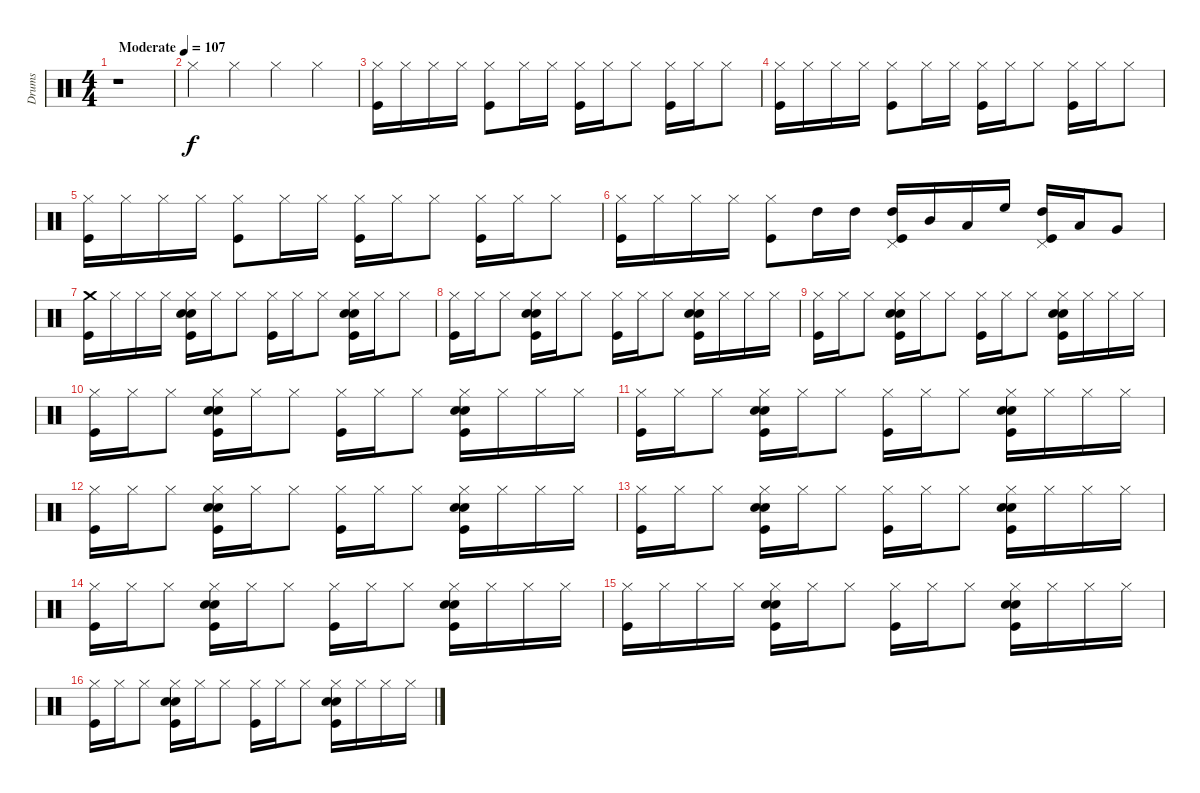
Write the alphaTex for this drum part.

\track ("Drums" "Drums") {instrument percussion}
\staff {score}
\articulation defaults
\ts (4 4)
\tempo (107 "Moderate")
\clef neutral
\ks c
r.1{dy f} |
"Hi-Hat (closed)".4 "Hi-Hat (closed)".4 "Hi-Hat (closed)".4 "Hi-Hat (closed)".4 |
("Kick (hit)" "Hi-Hat (closed)").16 "Hi-Hat (closed)".16 "Hi-Hat (closed)".16 "Hi-Hat (closed)".16 ("Kick (hit)" "Hi-Hat (closed)").8 "Hi-Hat (closed)".16 "Hi-Hat (closed)".16 ("Kick (hit)" "Hi-Hat (closed)").16 "Hi-Hat (closed)".16 "Hi-Hat (closed)".8 ("Kick (hit)" "Hi-Hat (closed)").16 "Hi-Hat (closed)".16 "Hi-Hat (closed)".8 |
("Kick (hit)" "Hi-Hat (closed)").16 "Hi-Hat (closed)".16 "Hi-Hat (closed)".16 "Hi-Hat (closed)".16 ("Kick (hit)" "Hi-Hat (closed)").8 "Hi-Hat (closed)".16 "Hi-Hat (closed)".16 ("Kick (hit)" "Hi-Hat (closed)").16 "Hi-Hat (closed)".16 "Hi-Hat (closed)".8 ("Kick (hit)" "Hi-Hat (closed)").16 "Hi-Hat (closed)".16 "Hi-Hat (closed)".8 |
("Kick (hit)" "Hi-Hat (closed)").16 "Hi-Hat (closed)".16 "Hi-Hat (closed)".16 "Hi-Hat (closed)".16 ("Kick (hit)" "Hi-Hat (closed)").8 "Hi-Hat (closed)".16 "Hi-Hat (closed)".16 ("Kick (hit)" "Hi-Hat (closed)").16 "Hi-Hat (closed)".16 "Hi-Hat (closed)".8 ("Kick (hit)" "Hi-Hat (closed)").16 "Hi-Hat (closed)".16 "Hi-Hat (closed)".8 |
("Kick (hit)" "Hi-Hat (closed)").16 "Hi-Hat (closed)".16 "Hi-Hat (closed)".16 "Hi-Hat (closed)".16 ("Kick (hit)" "Hi-Hat (closed)").8 "High Tom (hit)".16 "High Tom (hit)".16 ("Kick (hit)" "Pedal Hi-Hat (hit)" "High Tom (hit)").16 "Mid Tom (hit)".16 "Low Tom (hit)".16 "High Floor Tom (hit)".16 ("Kick (hit)" "Pedal Hi-Hat (hit)" "High Tom (hit)").16 "Low Tom (hit)".16 "Very Low Tom (hit)".8 |
("Kick (hit)" "Crash medium (hit)").16 "Hi-Hat (closed)".16 "Hi-Hat (closed)".16 "Hi-Hat (closed)".16 ("Kick (hit)" "Snare (hit) 2" "Hand Clap (hit)" "Hi-Hat (closed)").16 "Hi-Hat (closed)".16 "Hi-Hat (closed)".8 ("Kick (hit)" "Hi-Hat (closed)").16 "Hi-Hat (closed)".16 "Hi-Hat (closed)".8 ("Kick (hit)" "Snare (hit) 2" "Hand Clap (hit)" "Hi-Hat (closed)").16 "Hi-Hat (closed)".16 "Hi-Hat (closed)".8 |
("Kick (hit)" "Hi-Hat (closed)").16 "Hi-Hat (closed)".16 "Hi-Hat (closed)".8 ("Kick (hit)" "Snare (hit) 2" "Hand Clap (hit)" "Hi-Hat (closed)").16 "Hi-Hat (closed)".16 "Hi-Hat (closed)".8 ("Kick (hit)" "Hi-Hat (closed)").16 "Hi-Hat (closed)".16 "Hi-Hat (closed)".8 ("Kick (hit)" "Snare (hit) 2" "Hand Clap (hit)" "Hi-Hat (closed)").16 "Hi-Hat (closed)".16 "Hi-Hat (closed)".16 "Hi-Hat (closed)".16 |
("Kick (hit)" "Hi-Hat (closed)").16 "Hi-Hat (closed)".16 "Hi-Hat (closed)".8 ("Kick (hit)" "Snare (hit) 2" "Hand Clap (hit)" "Hi-Hat (closed)").16 "Hi-Hat (closed)".16 "Hi-Hat (closed)".8 ("Kick (hit)" "Hi-Hat (closed)").16 "Hi-Hat (closed)".16 "Hi-Hat (closed)".8 ("Kick (hit)" "Snare (hit) 2" "Hand Clap (hit)" "Hi-Hat (closed)").16 "Hi-Hat (closed)".16 "Hi-Hat (closed)".16 "Hi-Hat (closed)".16 |
("Kick (hit)" "Hi-Hat (closed)").16 "Hi-Hat (closed)".16 "Hi-Hat (closed)".8 ("Kick (hit)" "Snare (hit) 2" "Hand Clap (hit)" "Hi-Hat (closed)").16 "Hi-Hat (closed)".16 "Hi-Hat (closed)".8 ("Kick (hit)" "Hi-Hat (closed)").16 "Hi-Hat (closed)".16 "Hi-Hat (closed)".8 ("Kick (hit)" "Snare (hit) 2" "Hand Clap (hit)" "Hi-Hat (closed)").16 "Hi-Hat (closed)".16 "Hi-Hat (closed)".16 "Hi-Hat (closed)".16 |
("Kick (hit)" "Hi-Hat (closed)").16 "Hi-Hat (closed)".16 "Hi-Hat (closed)".8 ("Kick (hit)" "Snare (hit) 2" "Hand Clap (hit)" "Hi-Hat (closed)").16 "Hi-Hat (closed)".16 "Hi-Hat (closed)".8 ("Kick (hit)" "Hi-Hat (closed)").16 "Hi-Hat (closed)".16 "Hi-Hat (closed)".8 ("Kick (hit)" "Snare (hit) 2" "Hand Clap (hit)" "Hi-Hat (closed)").16 "Hi-Hat (closed)".16 "Hi-Hat (closed)".16 "Hi-Hat (closed)".16 |
("Kick (hit)" "Hi-Hat (closed)").16 "Hi-Hat (closed)".16 "Hi-Hat (closed)".8 ("Kick (hit)" "Snare (hit) 2" "Hand Clap (hit)" "Hi-Hat (closed)").16 "Hi-Hat (closed)".16 "Hi-Hat (closed)".8 ("Kick (hit)" "Hi-Hat (closed)").16 "Hi-Hat (closed)".16 "Hi-Hat (closed)".8 ("Kick (hit)" "Snare (hit) 2" "Hand Clap (hit)" "Hi-Hat (closed)").16 "Hi-Hat (closed)".16 "Hi-Hat (closed)".16 "Hi-Hat (closed)".16 |
("Kick (hit)" "Hi-Hat (closed)").16 "Hi-Hat (closed)".16 "Hi-Hat (closed)".8 ("Kick (hit)" "Snare (hit) 2" "Hand Clap (hit)" "Hi-Hat (closed)").16 "Hi-Hat (closed)".16 "Hi-Hat (closed)".8 ("Kick (hit)" "Hi-Hat (closed)").16 "Hi-Hat (closed)".16 "Hi-Hat (closed)".8 ("Kick (hit)" "Snare (hit) 2" "Hand Clap (hit)" "Hi-Hat (closed)").16 "Hi-Hat (closed)".16 "Hi-Hat (closed)".16 "Hi-Hat (closed)".16 |
("Kick (hit)" "Hi-Hat (closed)").16 "Hi-Hat (closed)".16 "Hi-Hat (closed)".8 ("Kick (hit)" "Snare (hit) 2" "Hand Clap (hit)" "Hi-Hat (closed)").16 "Hi-Hat (closed)".16 "Hi-Hat (closed)".8 ("Kick (hit)" "Hi-Hat (closed)").16 "Hi-Hat (closed)".16 "Hi-Hat (closed)".8 ("Kick (hit)" "Snare (hit) 2" "Hand Clap (hit)" "Hi-Hat (closed)").16 "Hi-Hat (closed)".16 "Hi-Hat (closed)".16 "Hi-Hat (closed)".16 |
("Kick (hit)" "Hi-Hat (closed)").16 "Hi-Hat (closed)".16 "Hi-Hat (closed)".16 "Hi-Hat (closed)".16 ("Kick (hit)" "Snare (hit) 2" "Hand Clap (hit)" "Hi-Hat (closed)").16 "Hi-Hat (closed)".16 "Hi-Hat (closed)".8 ("Kick (hit)" "Hi-Hat (closed)").16 "Hi-Hat (closed)".16 "Hi-Hat (closed)".8 ("Kick (hit)" "Snare (hit) 2" "Hand Clap (hit)" "Hi-Hat (closed)").16 "Hi-Hat (closed)".16 "Hi-Hat (closed)".16 "Hi-Hat (closed)".16 |
("Kick (hit)" "Hi-Hat (closed)").16 "Hi-Hat (closed)".16 "Hi-Hat (closed)".8 ("Kick (hit)" "Snare (hit) 2" "Hand Clap (hit)" "Hi-Hat (closed)").16 "Hi-Hat (closed)".16 "Hi-Hat (closed)".8 ("Kick (hit)" "Hi-Hat (closed)").16 "Hi-Hat (closed)".16 "Hi-Hat (closed)".8 ("Kick (hit)" "Snare (hit) 2" "Hand Clap (hit)" "Hi-Hat (closed)").16 "Hi-Hat (closed)".16 "Hi-Hat (closed)".16 "Hi-Hat (closed)".16
